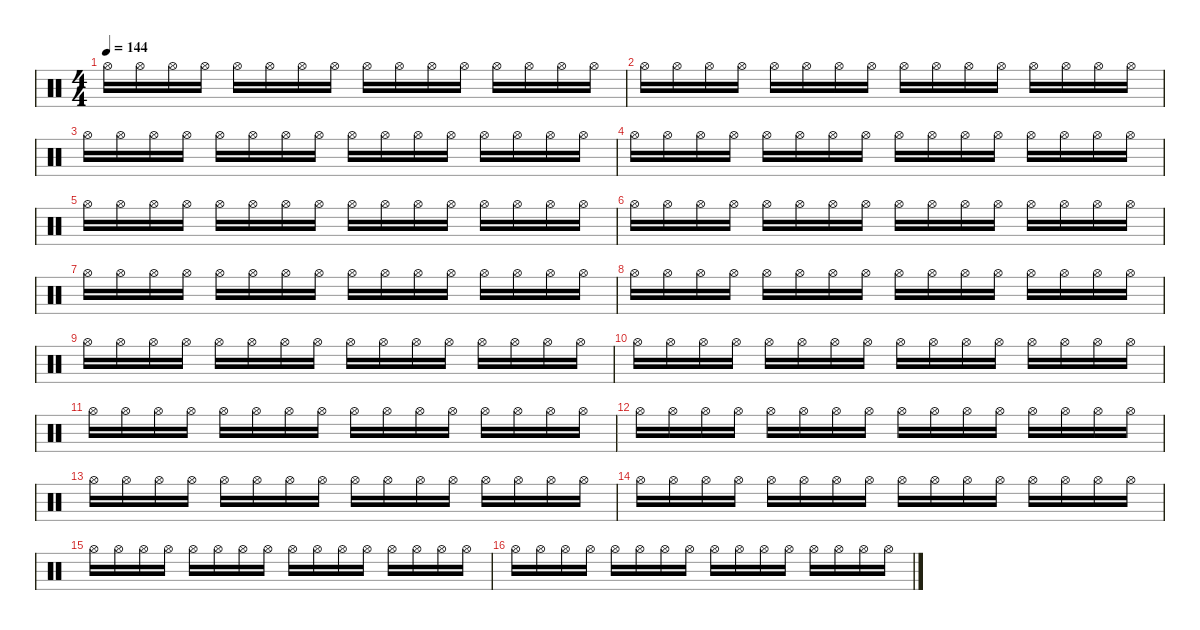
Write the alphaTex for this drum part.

\defaultSystemsLayout 4
\hideDynamics
\bracketExtendMode nobrackets
\singleTrackTrackNamePolicy hidden
\multiTrackTrackNamePolicy hidden
\firstSystemTrackNameMode fullname
\firstSystemTrackNameOrientation horizontal
\otherSystemsTrackNameOrientation horizontal
\track ("Percussion" "drm.") {instrument percussion}
\staff {score}
\articulation defaults
\ts (4 4)
\tempo 144
\clef neutral
\ks c "Hi-Hat (open)".16{dy f beam Down} "Hi-Hat (open)".16{beam Down} "Hi-Hat (open)".16{beam Down} "Hi-Hat (open)".16{beam Down} "Hi-Hat (open)".16{beam Down} "Hi-Hat (open)".16{beam Down} "Hi-Hat (open)".16{beam Down} "Hi-Hat (open)".16{beam Down} "Hi-Hat (open)".16{beam Down} "Hi-Hat (open)".16{beam Down} "Hi-Hat (open)".16{beam Down} "Hi-Hat (open)".16{beam Down} "Hi-Hat (open)".16{beam Down} "Hi-Hat (open)".16{beam Down} "Hi-Hat (open)".16{beam Down} "Hi-Hat (open)".16{beam Down}
|
"Hi-Hat (open)".16{beam Down} "Hi-Hat (open)".16{beam Down} "Hi-Hat (open)".16{beam Down} "Hi-Hat (open)".16{beam Down} "Hi-Hat (open)".16{beam Down} "Hi-Hat (open)".16{beam Down} "Hi-Hat (open)".16{beam Down} "Hi-Hat (open)".16{beam Down} "Hi-Hat (open)".16{beam Down} "Hi-Hat (open)".16{beam Down} "Hi-Hat (open)".16{beam Down} "Hi-Hat (open)".16{beam Down} "Hi-Hat (open)".16{beam Down} "Hi-Hat (open)".16{beam Down} "Hi-Hat (open)".16{beam Down} "Hi-Hat (open)".16{beam Down} |
"Hi-Hat (open)".16{beam Down} "Hi-Hat (open)".16{beam Down} "Hi-Hat (open)".16{beam Down} "Hi-Hat (open)".16{beam Down} "Hi-Hat (open)".16{beam Down} "Hi-Hat (open)".16{beam Down} "Hi-Hat (open)".16{beam Down} "Hi-Hat (open)".16{beam Down} "Hi-Hat (open)".16{beam Down} "Hi-Hat (open)".16{beam Down} "Hi-Hat (open)".16{beam Down} "Hi-Hat (open)".16{beam Down} "Hi-Hat (open)".16{beam Down} "Hi-Hat (open)".16{beam Down} "Hi-Hat (open)".16{beam Down} "Hi-Hat (open)".16{beam Down} |
"Hi-Hat (open)".16{beam Down} "Hi-Hat (open)".16{beam Down} "Hi-Hat (open)".16{beam Down} "Hi-Hat (open)".16{beam Down} "Hi-Hat (open)".16{beam Down} "Hi-Hat (open)".16{beam Down} "Hi-Hat (open)".16{beam Down} "Hi-Hat (open)".16{beam Down} "Hi-Hat (open)".16{beam Down} "Hi-Hat (open)".16{beam Down} "Hi-Hat (open)".16{beam Down} "Hi-Hat (open)".16{beam Down} "Hi-Hat (open)".16{beam Down} "Hi-Hat (open)".16{beam Down} "Hi-Hat (open)".16{beam Down} "Hi-Hat (open)".16{beam Down} |
"Hi-Hat (open)".16{beam Down} "Hi-Hat (open)".16{beam Down} "Hi-Hat (open)".16{beam Down} "Hi-Hat (open)".16{beam Down} "Hi-Hat (open)".16{beam Down} "Hi-Hat (open)".16{beam Down} "Hi-Hat (open)".16{beam Down} "Hi-Hat (open)".16{beam Down} "Hi-Hat (open)".16{beam Down} "Hi-Hat (open)".16{beam Down} "Hi-Hat (open)".16{beam Down} "Hi-Hat (open)".16{beam Down} "Hi-Hat (open)".16{beam Down} "Hi-Hat (open)".16{beam Down} "Hi-Hat (open)".16{beam Down} "Hi-Hat (open)".16{beam Down} |
"Hi-Hat (open)".16{beam Down} "Hi-Hat (open)".16{beam Down} "Hi-Hat (open)".16{beam Down} "Hi-Hat (open)".16{beam Down} "Hi-Hat (open)".16{beam Down} "Hi-Hat (open)".16{beam Down} "Hi-Hat (open)".16{beam Down} "Hi-Hat (open)".16{beam Down} "Hi-Hat (open)".16{beam Down} "Hi-Hat (open)".16{beam Down} "Hi-Hat (open)".16{beam Down} "Hi-Hat (open)".16{beam Down} "Hi-Hat (open)".16{beam Down} "Hi-Hat (open)".16{beam Down} "Hi-Hat (open)".16{beam Down} "Hi-Hat (open)".16{beam Down} |
"Hi-Hat (open)".16{beam Down} "Hi-Hat (open)".16{beam Down} "Hi-Hat (open)".16{beam Down} "Hi-Hat (open)".16{beam Down} "Hi-Hat (open)".16{beam Down} "Hi-Hat (open)".16{beam Down} "Hi-Hat (open)".16{beam Down} "Hi-Hat (open)".16{beam Down} "Hi-Hat (open)".16{beam Down} "Hi-Hat (open)".16{beam Down} "Hi-Hat (open)".16{beam Down} "Hi-Hat (open)".16{beam Down} "Hi-Hat (open)".16{beam Down} "Hi-Hat (open)".16{beam Down} "Hi-Hat (open)".16{beam Down} "Hi-Hat (open)".16{beam Down} |
"Hi-Hat (open)".16{beam Down} "Hi-Hat (open)".16{beam Down} "Hi-Hat (open)".16{beam Down} "Hi-Hat (open)".16{beam Down} "Hi-Hat (open)".16{beam Down} "Hi-Hat (open)".16{beam Down} "Hi-Hat (open)".16{beam Down} "Hi-Hat (open)".16{beam Down} "Hi-Hat (open)".16{beam Down} "Hi-Hat (open)".16{beam Down} "Hi-Hat (open)".16{beam Down} "Hi-Hat (open)".16{beam Down} "Hi-Hat (open)".16{beam Down} "Hi-Hat (open)".16{beam Down} "Hi-Hat (open)".16{beam Down} "Hi-Hat (open)".16{beam Down} |
"Hi-Hat (open)".16{beam Down} "Hi-Hat (open)".16{beam Down} "Hi-Hat (open)".16{beam Down} "Hi-Hat (open)".16{beam Down} "Hi-Hat (open)".16{beam Down} "Hi-Hat (open)".16{beam Down} "Hi-Hat (open)".16{beam Down} "Hi-Hat (open)".16{beam Down} "Hi-Hat (open)".16{beam Down} "Hi-Hat (open)".16{beam Down} "Hi-Hat (open)".16{beam Down} "Hi-Hat (open)".16{beam Down} "Hi-Hat (open)".16{beam Down} "Hi-Hat (open)".16{beam Down} "Hi-Hat (open)".16{beam Down} "Hi-Hat (open)".16{beam Down} |
"Hi-Hat (open)".16{beam Down} "Hi-Hat (open)".16{beam Down} "Hi-Hat (open)".16{beam Down} "Hi-Hat (open)".16{beam Down} "Hi-Hat (open)".16{beam Down} "Hi-Hat (open)".16{beam Down} "Hi-Hat (open)".16{beam Down} "Hi-Hat (open)".16{beam Down} "Hi-Hat (open)".16{beam Down} "Hi-Hat (open)".16{beam Down} "Hi-Hat (open)".16{beam Down} "Hi-Hat (open)".16{beam Down} "Hi-Hat (open)".16{beam Down} "Hi-Hat (open)".16{beam Down} "Hi-Hat (open)".16{beam Down} "Hi-Hat (open)".16{beam Down} |
"Hi-Hat (open)".16{beam Down} "Hi-Hat (open)".16{beam Down} "Hi-Hat (open)".16{beam Down} "Hi-Hat (open)".16{beam Down} "Hi-Hat (open)".16{beam Down} "Hi-Hat (open)".16{beam Down} "Hi-Hat (open)".16{beam Down} "Hi-Hat (open)".16{beam Down} "Hi-Hat (open)".16{beam Down} "Hi-Hat (open)".16{beam Down} "Hi-Hat (open)".16{beam Down} "Hi-Hat (open)".16{beam Down} "Hi-Hat (open)".16{beam Down} "Hi-Hat (open)".16{beam Down} "Hi-Hat (open)".16{beam Down} "Hi-Hat (open)".16{beam Down} |
"Hi-Hat (open)".16{beam Down} "Hi-Hat (open)".16{beam Down} "Hi-Hat (open)".16{beam Down} "Hi-Hat (open)".16{beam Down} "Hi-Hat (open)".16{beam Down} "Hi-Hat (open)".16{beam Down} "Hi-Hat (open)".16{beam Down} "Hi-Hat (open)".16{beam Down} "Hi-Hat (open)".16{beam Down} "Hi-Hat (open)".16{beam Down} "Hi-Hat (open)".16{beam Down} "Hi-Hat (open)".16{beam Down} "Hi-Hat (open)".16{beam Down} "Hi-Hat (open)".16{beam Down} "Hi-Hat (open)".16{beam Down} "Hi-Hat (open)".16{beam Down} |
"Hi-Hat (open)".16{beam Down} "Hi-Hat (open)".16{beam Down} "Hi-Hat (open)".16{beam Down} "Hi-Hat (open)".16{beam Down} "Hi-Hat (open)".16{beam Down} "Hi-Hat (open)".16{beam Down} "Hi-Hat (open)".16{beam Down} "Hi-Hat (open)".16{beam Down} "Hi-Hat (open)".16{beam Down} "Hi-Hat (open)".16{beam Down} "Hi-Hat (open)".16{beam Down} "Hi-Hat (open)".16{beam Down} "Hi-Hat (open)".16{beam Down} "Hi-Hat (open)".16{beam Down} "Hi-Hat (open)".16{beam Down} "Hi-Hat (open)".16{beam Down} |
"Hi-Hat (open)".16{beam Down} "Hi-Hat (open)".16{beam Down} "Hi-Hat (open)".16{beam Down} "Hi-Hat (open)".16{beam Down} "Hi-Hat (open)".16{beam Down} "Hi-Hat (open)".16{beam Down} "Hi-Hat (open)".16{beam Down} "Hi-Hat (open)".16{beam Down} "Hi-Hat (open)".16{beam Down} "Hi-Hat (open)".16{beam Down} "Hi-Hat (open)".16{beam Down} "Hi-Hat (open)".16{beam Down} "Hi-Hat (open)".16{beam Down} "Hi-Hat (open)".16{beam Down} "Hi-Hat (open)".16{beam Down} "Hi-Hat (open)".16{beam Down} |
"Hi-Hat (open)".16{beam Down} "Hi-Hat (open)".16{beam Down} "Hi-Hat (open)".16{beam Down} "Hi-Hat (open)".16{beam Down} "Hi-Hat (open)".16{beam Down} "Hi-Hat (open)".16{beam Down} "Hi-Hat (open)".16{beam Down} "Hi-Hat (open)".16{beam Down} "Hi-Hat (open)".16{beam Down} "Hi-Hat (open)".16{beam Down} "Hi-Hat (open)".16{beam Down} "Hi-Hat (open)".16{beam Down} "Hi-Hat (open)".16{beam Down} "Hi-Hat (open)".16{beam Down} "Hi-Hat (open)".16{beam Down} "Hi-Hat (open)".16{beam Down} |
"Hi-Hat (open)".16{beam Down} "Hi-Hat (open)".16{beam Down} "Hi-Hat (open)".16{beam Down} "Hi-Hat (open)".16{beam Down} "Hi-Hat (open)".16{beam Down} "Hi-Hat (open)".16{beam Down} "Hi-Hat (open)".16{beam Down} "Hi-Hat (open)".16{beam Down} "Hi-Hat (open)".16{beam Down} "Hi-Hat (open)".16{beam Down} "Hi-Hat (open)".16{beam Down} "Hi-Hat (open)".16{beam Down} "Hi-Hat (open)".16{beam Down} "Hi-Hat (open)".16{beam Down} "Hi-Hat (open)".16{beam Down} "Hi-Hat (open)".16{beam Down}
